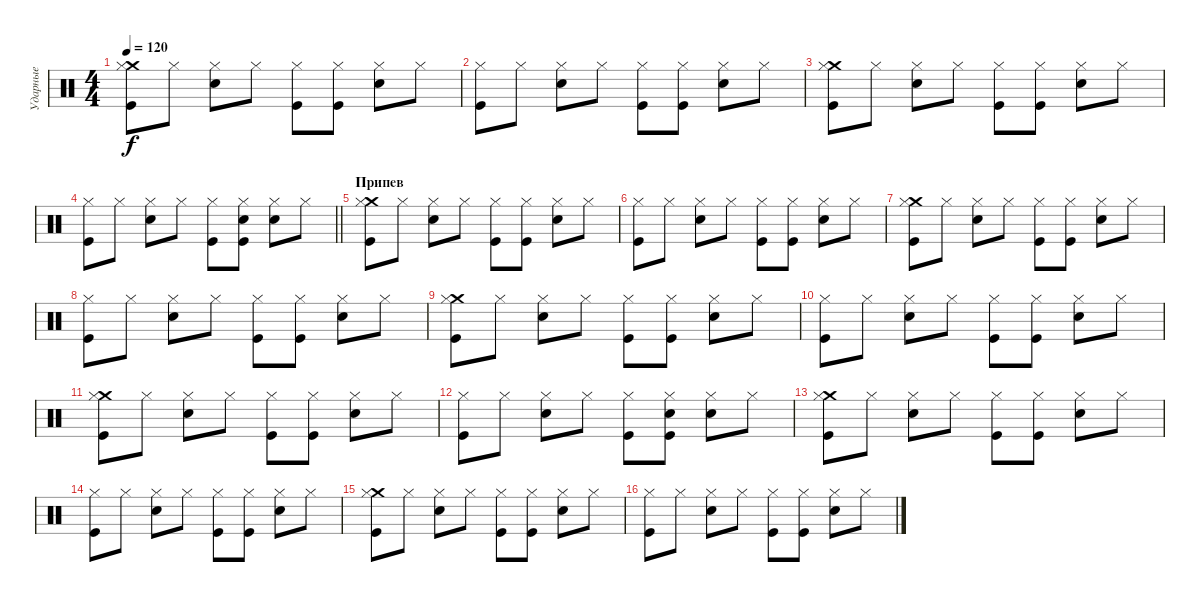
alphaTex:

\track ("Ударные" "Ударные") {instrument percussion}
\staff {score}
\articulation defaults
\ts (4 4)
\tempo 120
\clef neutral
\ks c
("Crash medium (hit)" "Hi-Hat (closed)" "Kick (hit)").8{dy f} "Hi-Hat (closed)".8 ("Snare (hit) 2" "Hi-Hat (closed)").8 "Hi-Hat (closed)".8 ("Kick (hit)" "Hi-Hat (closed)").8 ("Kick (hit)" "Hi-Hat (closed)").8 ("Snare (hit) 2" "Hi-Hat (closed)").8 "Hi-Hat (closed)".8 |
("Kick (hit)" "Hi-Hat (closed)").8 "Hi-Hat (closed)".8 ("Snare (hit) 2" "Hi-Hat (closed)").8 "Hi-Hat (closed)".8 ("Kick (hit)" "Hi-Hat (closed)").8 ("Kick (hit)" "Hi-Hat (closed)").8 ("Snare (hit) 2" "Hi-Hat (closed)").8 "Hi-Hat (closed)".8 |
("Crash medium (hit)" "Hi-Hat (closed)" "Kick (hit)").8 "Hi-Hat (closed)".8 ("Snare (hit) 2" "Hi-Hat (closed)").8 "Hi-Hat (closed)".8 ("Kick (hit)" "Hi-Hat (closed)").8 ("Kick (hit)" "Hi-Hat (closed)").8 ("Snare (hit) 2" "Hi-Hat (closed)").8 "Hi-Hat (closed)".8 |
\barLineRight lightlight
("Kick (hit)" "Hi-Hat (closed)").8 "Hi-Hat (closed)".8 ("Snare (hit) 2" "Hi-Hat (closed)").8 "Hi-Hat (closed)".8 ("Kick (hit)" "Hi-Hat (closed)").8 ("Kick (hit)" "Hi-Hat (closed)" "Snare (hit) 2").8 ("Snare (hit) 2" "Hi-Hat (closed)").8 "Hi-Hat (closed)".8 |
\section ("" "Припев")
("Crash medium (hit)" "Hi-Hat (closed)" "Kick (hit)").8 "Hi-Hat (closed)".8 ("Snare (hit) 2" "Hi-Hat (closed)").8 "Hi-Hat (closed)".8 ("Kick (hit)" "Hi-Hat (closed)").8 ("Kick (hit)" "Hi-Hat (closed)").8 ("Snare (hit) 2" "Hi-Hat (closed)").8 "Hi-Hat (closed)".8 |
("Kick (hit)" "Hi-Hat (closed)").8 "Hi-Hat (closed)".8 ("Snare (hit) 2" "Hi-Hat (closed)").8 "Hi-Hat (closed)".8 ("Kick (hit)" "Hi-Hat (closed)").8 ("Kick (hit)" "Hi-Hat (closed)").8 ("Snare (hit) 2" "Hi-Hat (closed)").8 "Hi-Hat (closed)".8 |
("Crash medium (hit)" "Hi-Hat (closed)" "Kick (hit)").8 "Hi-Hat (closed)".8 ("Snare (hit) 2" "Hi-Hat (closed)").8 "Hi-Hat (closed)".8 ("Kick (hit)" "Hi-Hat (closed)").8 ("Kick (hit)" "Hi-Hat (closed)").8 ("Snare (hit) 2" "Hi-Hat (closed)").8 "Hi-Hat (closed)".8 |
("Kick (hit)" "Hi-Hat (closed)").8 "Hi-Hat (closed)".8 ("Snare (hit) 2" "Hi-Hat (closed)").8 "Hi-Hat (closed)".8 ("Kick (hit)" "Hi-Hat (closed)").8 ("Kick (hit)" "Hi-Hat (closed)").8 ("Snare (hit) 2" "Hi-Hat (closed)").8 "Hi-Hat (closed)".8 |
("Crash medium (hit)" "Hi-Hat (closed)" "Kick (hit)").8 "Hi-Hat (closed)".8 ("Snare (hit) 2" "Hi-Hat (closed)").8 "Hi-Hat (closed)".8 ("Kick (hit)" "Hi-Hat (closed)").8 ("Kick (hit)" "Hi-Hat (closed)").8 ("Snare (hit) 2" "Hi-Hat (closed)").8 "Hi-Hat (closed)".8 |
("Kick (hit)" "Hi-Hat (closed)").8 "Hi-Hat (closed)".8 ("Snare (hit) 2" "Hi-Hat (closed)").8 "Hi-Hat (closed)".8 ("Kick (hit)" "Hi-Hat (closed)").8 ("Kick (hit)" "Hi-Hat (closed)").8 ("Snare (hit) 2" "Hi-Hat (closed)").8 "Hi-Hat (closed)".8 |
("Crash medium (hit)" "Hi-Hat (closed)" "Kick (hit)").8 "Hi-Hat (closed)".8 ("Snare (hit) 2" "Hi-Hat (closed)").8 "Hi-Hat (closed)".8 ("Kick (hit)" "Hi-Hat (closed)").8 ("Kick (hit)" "Hi-Hat (closed)").8 ("Snare (hit) 2" "Hi-Hat (closed)").8 "Hi-Hat (closed)".8 |
("Kick (hit)" "Hi-Hat (closed)").8 "Hi-Hat (closed)".8 ("Snare (hit) 2" "Hi-Hat (closed)").8 "Hi-Hat (closed)".8 ("Kick (hit)" "Hi-Hat (closed)").8 ("Kick (hit)" "Hi-Hat (closed)" "Snare (hit) 2").8 ("Snare (hit) 2" "Hi-Hat (closed)").8 "Hi-Hat (closed)".8 |
("Crash medium (hit)" "Hi-Hat (closed)" "Kick (hit)").8 "Hi-Hat (closed)".8 ("Snare (hit) 2" "Hi-Hat (closed)").8 "Hi-Hat (closed)".8 ("Kick (hit)" "Hi-Hat (closed)").8 ("Kick (hit)" "Hi-Hat (closed)").8 ("Snare (hit) 2" "Hi-Hat (closed)").8 "Hi-Hat (closed)".8 |
("Kick (hit)" "Hi-Hat (closed)").8 "Hi-Hat (closed)".8 ("Snare (hit) 2" "Hi-Hat (closed)").8 "Hi-Hat (closed)".8 ("Kick (hit)" "Hi-Hat (closed)").8 ("Kick (hit)" "Hi-Hat (closed)").8 ("Snare (hit) 2" "Hi-Hat (closed)").8 "Hi-Hat (closed)".8 |
("Crash medium (hit)" "Hi-Hat (closed)" "Kick (hit)").8 "Hi-Hat (closed)".8 ("Snare (hit) 2" "Hi-Hat (closed)").8 "Hi-Hat (closed)".8 ("Kick (hit)" "Hi-Hat (closed)").8 ("Kick (hit)" "Hi-Hat (closed)").8 ("Snare (hit) 2" "Hi-Hat (closed)").8 "Hi-Hat (closed)".8 |
("Kick (hit)" "Hi-Hat (closed)").8 "Hi-Hat (closed)".8 ("Snare (hit) 2" "Hi-Hat (closed)").8 "Hi-Hat (closed)".8 ("Kick (hit)" "Hi-Hat (closed)").8 ("Kick (hit)" "Hi-Hat (closed)").8 ("Snare (hit) 2" "Hi-Hat (closed)").8 "Hi-Hat (closed)".8
